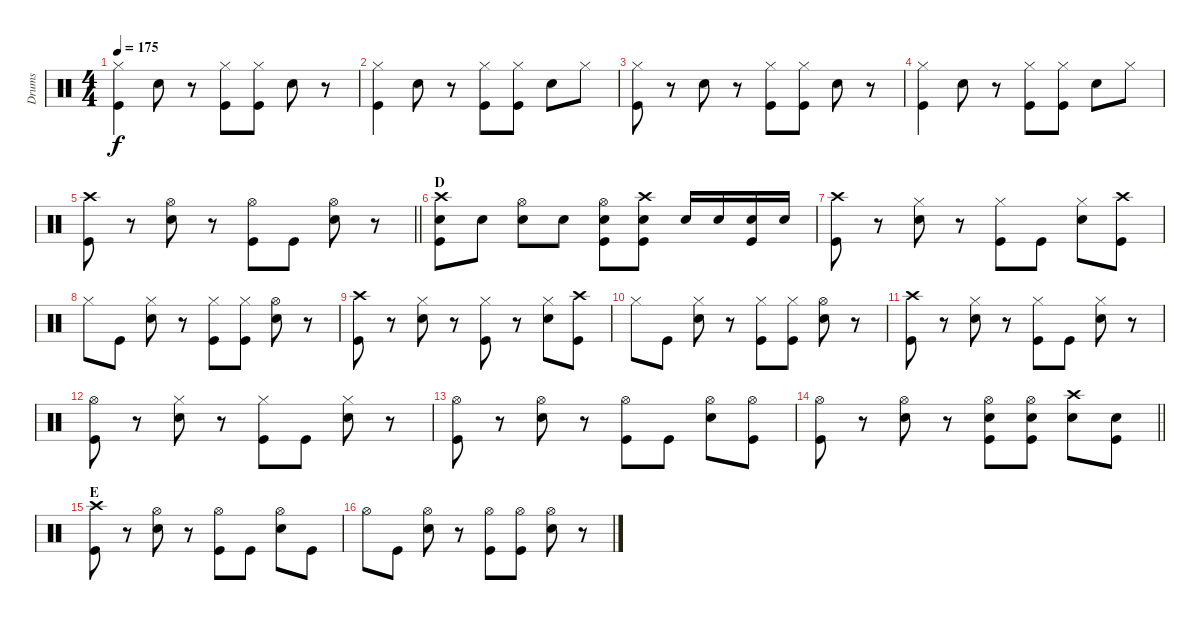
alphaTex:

\track ("Drums" "Drums") {instrument percussion}
\staff {score}
\articulation defaults
\ts (4 4)
\tempo 175
\clef neutral
\ks c
("Hi-Hat (closed)" "Kick (hit)").4{dy f} "Snare (hit) 2".8 r.8 ("Hi-Hat (closed)" "Kick (hit)").8 ("Hi-Hat (closed)" "Kick (hit)").8 "Snare (hit) 2".8 r.8 |
("Hi-Hat (closed)" "Kick (hit)").4 "Snare (hit) 2".8 r.8 ("Hi-Hat (closed)" "Kick (hit)").8 ("Hi-Hat (closed)" "Kick (hit)").8 "Snare (hit) 2".8 "Hi-Hat (closed)".8 |
("Hi-Hat (closed)" "Kick (hit)").8 r.8 "Snare (hit) 2".8 r.8 ("Hi-Hat (closed)" "Kick (hit)").8 ("Hi-Hat (closed)" "Kick (hit)").8 "Snare (hit) 2".8 r.8 |
("Hi-Hat (closed)" "Kick (hit)").4 "Snare (hit) 2".8 r.8 ("Hi-Hat (closed)" "Kick (hit)").8 ("Hi-Hat (closed)" "Kick (hit)").8 "Snare (hit) 2".8 "Hi-Hat (closed)".8 |
\barLineRight lightlight
("Crash high (hit)" "Kick (hit)").8 r.8 ("Hi-Hat (open)" "Snare (hit) 2").8 r.8 ("Hi-Hat (open)" "Kick (hit)").8 "Kick (hit)".8 ("Hi-Hat (open)" "Snare (hit) 2").8 r.8 |
\section ("" "D")
("Crash high (hit)" "Snare (hit) 2" "Kick (hit)").8 "Snare (hit) 2".8 ("Hi-Hat (open)" "Snare (hit) 2").8 "Snare (hit) 2".8 ("Hi-Hat (open)" "Snare (hit) 2" "Kick (hit)").8 ("Crash high (hit)" "Snare (hit) 2" "Kick (hit)").8 "Snare (hit) 2".16 "Snare (hit) 2".16 ("Snare (hit) 2" "Kick (hit)").16 "Snare (hit) 2".16 |
("Crash high (hit)" "Kick (hit)").8 r.8 ("Hi-Hat (closed)" "Snare (hit) 2").8 r.8 ("Hi-Hat (closed)" "Kick (hit)").8 "Kick (hit)".8 ("Hi-Hat (closed)" "Snare (hit) 2").8 ("Crash high (hit)" "Kick (hit)").8 |
"Hi-Hat (closed)".8 "Kick (hit)".8 ("Hi-Hat (closed)" "Snare (hit) 2").8 r.8 ("Hi-Hat (closed)" "Kick (hit)").8 ("Hi-Hat (closed)" "Kick (hit)").8 ("Hi-Hat (open)" "Snare (hit) 2").8 r.8 |
("Crash high (hit)" "Kick (hit)").8 r.8 ("Hi-Hat (closed)" "Snare (hit) 2").8 r.8 ("Hi-Hat (closed)" "Kick (hit)").8 r.8 ("Hi-Hat (closed)" "Snare (hit) 2").8 ("Crash high (hit)" "Kick (hit)").8 |
"Hi-Hat (closed)".8 "Kick (hit)".8 ("Hi-Hat (closed)" "Snare (hit) 2").8 r.8 ("Hi-Hat (closed)" "Kick (hit)").8 ("Hi-Hat (closed)" "Kick (hit)").8 ("Hi-Hat (open)" "Snare (hit) 2").8 r.8 |
("Crash high (hit)" "Kick (hit)").8 r.8 ("Hi-Hat (closed)" "Snare (hit) 2").8 r.8 ("Hi-Hat (closed)" "Kick (hit)").8 "Kick (hit)".8 ("Hi-Hat (closed)" "Snare (hit) 2").8 r.8 |
("Hi-Hat (open)" "Kick (hit)").8 r.8 ("Hi-Hat (closed)" "Snare (hit) 2").8 r.8 ("Hi-Hat (closed)" "Kick (hit)").8 "Kick (hit)".8 ("Hi-Hat (closed)" "Snare (hit) 2").8 r.8 |
("Hi-Hat (open)" "Kick (hit)").8 r.8 ("Hi-Hat (open)" "Snare (hit) 2").8 r.8 ("Hi-Hat (open)" "Kick (hit)").8 "Kick (hit)".8 ("Hi-Hat (open)" "Snare (hit) 2").8 ("Hi-Hat (open)" "Kick (hit)").8 |
\barLineRight lightlight
("Hi-Hat (open)" "Kick (hit)").8 r.8 ("Hi-Hat (open)" "Snare (hit) 2").8 r.8 ("Hi-Hat (open)" "Snare (hit) 2" "Kick (hit)").8 ("Hi-Hat (open)" "Snare (hit) 2" "Kick (hit)").8 ("Crash high (hit)" "Snare (hit) 2").8 ("Snare (hit) 2" "Kick (hit)").8 |
\section ("" "E")
("Crash high (hit)" "Kick (hit)").8 r.8 ("Hi-Hat (open)" "Snare (hit) 2").8 r.8 ("Hi-Hat (open)" "Kick (hit)").8 "Kick (hit)".8 ("Hi-Hat (open)" "Snare (hit) 2").8 "Kick (hit)".8 |
"Hi-Hat (open)".8 "Kick (hit)".8 ("Hi-Hat (open)" "Snare (hit) 2").8 r.8 ("Hi-Hat (open)" "Kick (hit)").8 ("Hi-Hat (open)" "Kick (hit)").8 ("Hi-Hat (open)" "Snare (hit) 2").8 r.8
